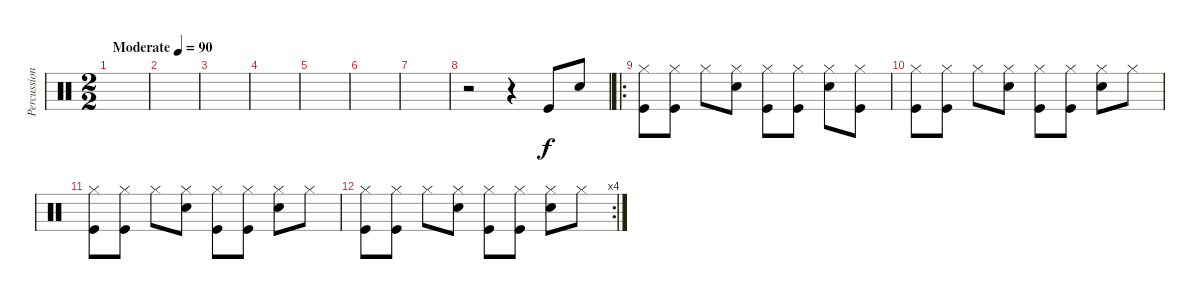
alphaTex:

\track ("Percussion" "Percussion") {instrument percussion}
\staff {score}
\articulation defaults
\ts (2 2)
\tempo (90 "Moderate")
\clef neutral
\ks c
|
|
|
|
|
|
|
r.2 r.4 "Kick (hit)".8 "Snare (hit) 2".8 |
\ro
("Kick (hit)" "Hi-Hat (closed)").8 ("Hi-Hat (closed)" "Kick (hit)").8 "Hi-Hat (closed)".8 ("Hi-Hat (closed)" "Snare (hit) 2").8 ("Hi-Hat (closed)" "Kick (hit)").8 ("Hi-Hat (closed)" "Kick (hit)").8 ("Hi-Hat (closed)" "Snare (hit) 2").8 ("Hi-Hat (closed)" "Kick (hit)").8 |
("Kick (hit)" "Hi-Hat (closed)").8 ("Hi-Hat (closed)" "Kick (hit)").8 "Hi-Hat (closed)".8 ("Hi-Hat (closed)" "Snare (hit) 2").8 ("Hi-Hat (closed)" "Kick (hit)").8 ("Hi-Hat (closed)" "Kick (hit)").8 ("Hi-Hat (closed)" "Snare (hit) 2").8 "Hi-Hat (closed)".8 |
("Kick (hit)" "Hi-Hat (closed)").8 ("Hi-Hat (closed)" "Kick (hit)").8 "Hi-Hat (closed)".8 ("Hi-Hat (closed)" "Snare (hit) 2").8 ("Hi-Hat (closed)" "Kick (hit)").8 ("Hi-Hat (closed)" "Kick (hit)").8 ("Hi-Hat (closed)" "Snare (hit) 2").8 "Hi-Hat (closed)".8 |
\rc 4
("Kick (hit)" "Hi-Hat (closed)").8 ("Hi-Hat (closed)" "Kick (hit)").8 "Hi-Hat (closed)".8 ("Hi-Hat (closed)" "Snare (hit) 2").8 ("Hi-Hat (closed)" "Kick (hit)").8 ("Hi-Hat (closed)" "Kick (hit)").8 ("Hi-Hat (closed)" "Snare (hit) 2").8 "Hi-Hat (closed)".8
